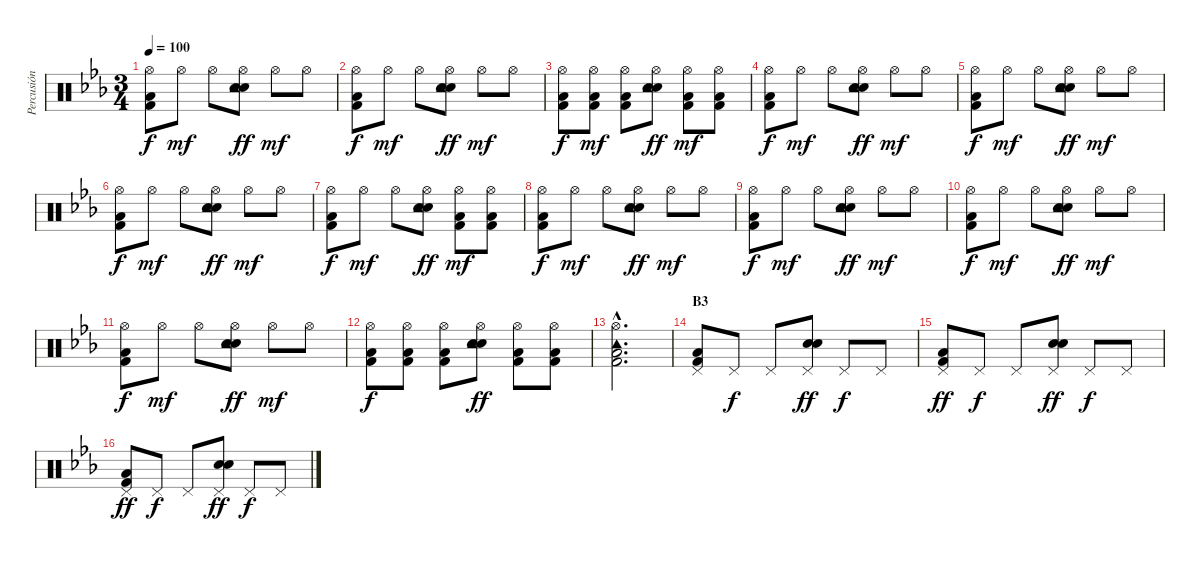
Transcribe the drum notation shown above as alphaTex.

\track ("Percusión" "Percusión") {instrument percussion}
\staff {score}
\articulation defaults
\ts (3 4)
\tempo 100
\clef neutral
\ks eb
("Hi-Hat (open)" "Low Floor Tom (hit)" "Kick (hit) 2").8{dy f} "Hi-Hat (open)".8{dy mf} "Hi-Hat (open)".8 ("Hi-Hat (open)" "Electric Snare (hit)" "Snare (hit) 2" "Tambourine (hit)").8{dy ff} "Hi-Hat (open)".8{dy mf} "Hi-Hat (open)".8 |
("Hi-Hat (open)" "Low Floor Tom (hit)" "Kick (hit) 2").8{dy f} "Hi-Hat (open)".8{dy mf} "Hi-Hat (open)".8 ("Hi-Hat (open)" "Electric Snare (hit)" "Snare (hit) 2" "Tambourine (hit)").8{dy ff} "Hi-Hat (open)".8{dy mf} "Hi-Hat (open)".8 |
("Hi-Hat (open)" "Low Floor Tom (hit)" "Kick (hit) 2").8{dy f} ("Hi-Hat (open)" "Low Floor Tom (hit)" "Kick (hit) 2").8{dy mf} ("Hi-Hat (open)" "Low Floor Tom (hit)" "Kick (hit) 2").8 ("Hi-Hat (open)" "Electric Snare (hit)" "Snare (hit) 2" "Tambourine (hit)").8{dy ff} ("Hi-Hat (open)" "Low Floor Tom (hit)" "Kick (hit) 2").8{dy mf} ("Hi-Hat (open)" "Low Floor Tom (hit)" "Kick (hit) 2").8 |
("Hi-Hat (open)" "Low Floor Tom (hit)" "Kick (hit) 2").8{dy f} "Hi-Hat (open)".8{dy mf} "Hi-Hat (open)".8 ("Hi-Hat (open)" "Electric Snare (hit)" "Snare (hit) 2" "Tambourine (hit)").8{dy ff} "Hi-Hat (open)".8{dy mf} "Hi-Hat (open)".8 |
("Hi-Hat (open)" "Low Floor Tom (hit)" "Kick (hit) 2").8{dy f} "Hi-Hat (open)".8{dy mf} "Hi-Hat (open)".8 ("Hi-Hat (open)" "Electric Snare (hit)" "Snare (hit) 2" "Tambourine (hit)").8{dy ff} "Hi-Hat (open)".8{dy mf} "Hi-Hat (open)".8 |
("Hi-Hat (open)" "Low Floor Tom (hit)" "Kick (hit) 2").8{dy f} "Hi-Hat (open)".8{dy mf} "Hi-Hat (open)".8 ("Hi-Hat (open)" "Electric Snare (hit)" "Snare (hit) 2" "Tambourine (hit)").8{dy ff} "Hi-Hat (open)".8{dy mf} "Hi-Hat (open)".8 |
("Hi-Hat (open)" "Low Floor Tom (hit)" "Kick (hit) 2").8{dy f} "Hi-Hat (open)".8{dy mf} "Hi-Hat (open)".8 ("Hi-Hat (open)" "Electric Snare (hit)" "Snare (hit) 2" "Tambourine (hit)").8{dy ff} ("Hi-Hat (open)" "Low Floor Tom (hit)" "Kick (hit) 2").8{dy mf} ("Hi-Hat (open)" "Low Floor Tom (hit)" "Kick (hit) 2").8 |
("Hi-Hat (open)" "Low Floor Tom (hit)" "Kick (hit) 2").8{dy f} "Hi-Hat (open)".8{dy mf} "Hi-Hat (open)".8 ("Hi-Hat (open)" "Electric Snare (hit)" "Snare (hit) 2" "Tambourine (hit)").8{dy ff} "Hi-Hat (open)".8{dy mf} "Hi-Hat (open)".8 |
("Hi-Hat (open)" "Low Floor Tom (hit)" "Kick (hit) 2").8{dy f} "Hi-Hat (open)".8{dy mf} "Hi-Hat (open)".8 ("Hi-Hat (open)" "Electric Snare (hit)" "Snare (hit) 2" "Tambourine (hit)").8{dy ff} "Hi-Hat (open)".8{dy mf} "Hi-Hat (open)".8 |
("Hi-Hat (open)" "Low Floor Tom (hit)" "Kick (hit) 2").8{dy f} "Hi-Hat (open)".8{dy mf} "Hi-Hat (open)".8 ("Hi-Hat (open)" "Electric Snare (hit)" "Snare (hit) 2" "Tambourine (hit)").8{dy ff} "Hi-Hat (open)".8{dy mf} "Hi-Hat (open)".8 |
("Hi-Hat (open)" "Low Floor Tom (hit)" "Kick (hit) 2").8{dy f} "Hi-Hat (open)".8{dy mf} "Hi-Hat (open)".8 ("Hi-Hat (open)" "Electric Snare (hit)" "Snare (hit) 2" "Tambourine (hit)").8{dy ff} "Hi-Hat (open)".8{dy mf} "Hi-Hat (open)".8 |
("Hi-Hat (open)" "Low Floor Tom (hit)" "Kick (hit) 2").8{dy f} ("Hi-Hat (open)" "Low Floor Tom (hit)" "Kick (hit) 2").8 ("Hi-Hat (open)" "Low Floor Tom (hit)" "Kick (hit) 2").8 ("Hi-Hat (open)" "Electric Snare (hit)" "Snare (hit) 2" "Tambourine (hit)").8{dy ff} ("Hi-Hat (open)" "Low Floor Tom (hit)" "Kick (hit) 2").8 ("Hi-Hat (open)" "Low Floor Tom (hit)" "Kick (hit) 2").8 |
("Hi-Hat (open)"{hac} "Low Floor Tom (hit)"{hac} "Kick (hit) 2"{hac} "Tambourine (hit)"{hac}).2{d} |
\section ("" "B3")
("Pedal Hi-Hat (hit)" "Low Floor Tom (hit)" "Kick (hit) 2").8 "Pedal Hi-Hat (hit)".8{dy f} "Pedal Hi-Hat (hit)".8 ("Pedal Hi-Hat (hit)" "Electric Snare (hit)" "Snare (hit) 2").8{dy ff} "Pedal Hi-Hat (hit)".8{dy f} "Pedal Hi-Hat (hit)".8 |
("Pedal Hi-Hat (hit)" "Low Floor Tom (hit)" "Kick (hit) 2").8{dy ff} "Pedal Hi-Hat (hit)".8{dy f} "Pedal Hi-Hat (hit)".8 ("Pedal Hi-Hat (hit)" "Electric Snare (hit)" "Snare (hit) 2").8{dy ff} "Pedal Hi-Hat (hit)".8{dy f} "Pedal Hi-Hat (hit)".8 |
("Pedal Hi-Hat (hit)" "Low Floor Tom (hit)" "Kick (hit) 2").8{dy ff} "Pedal Hi-Hat (hit)".8{dy f} "Pedal Hi-Hat (hit)".8 ("Pedal Hi-Hat (hit)" "Electric Snare (hit)" "Snare (hit) 2").8{dy ff} "Pedal Hi-Hat (hit)".8{dy f} "Pedal Hi-Hat (hit)".8
